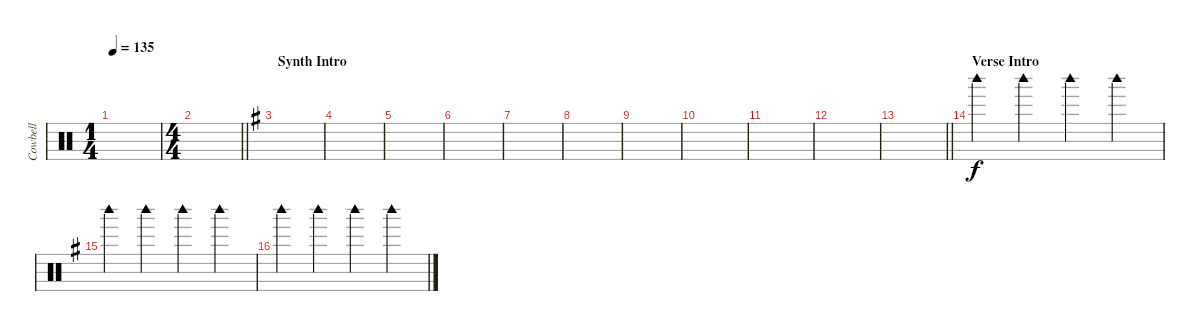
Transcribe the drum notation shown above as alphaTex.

\track ("Cowbell" "Cowbell") {instrument percussion}
\staff {score}
\articulation defaults
\ts (1 4)
\tempo 135
\clef neutral
\ks c
|
\ts (4 4)
\barLineRight lightlight
|
\section ("" "Synth Intro")
\ks g
|
|
|
|
|
|
|
|
|
|
\barLineRight lightlight
|
\section ("" "Verse Intro")
"Woodblock high (hit)".4 "Woodblock high (hit)".4 "Woodblock high (hit)".4 "Woodblock high (hit)".4 |
"Woodblock high (hit)".4 "Woodblock high (hit)".4 "Woodblock high (hit)".4 "Woodblock high (hit)".4 |
"Woodblock high (hit)".4 "Woodblock high (hit)".4 "Woodblock high (hit)".4 "Woodblock high (hit)".4
